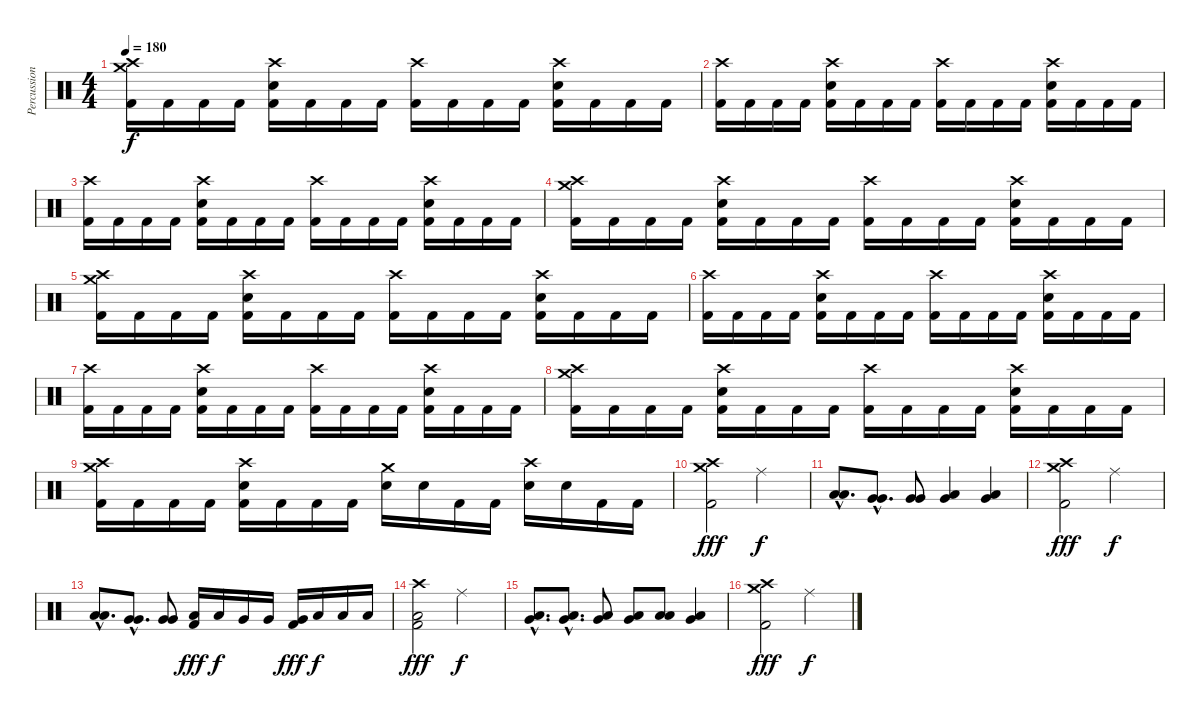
\track ("Percussion (Francisco Izquierdo)" "Percussion") {instrument percussion}
\staff {score}
\articulation defaults
\ts (4 4)
\tempo 180
\clef neutral
\ks c
("Crash high (hit)" "Crash medium (hit)" "Kick (hit) 2").16{dy f} "Kick (hit) 2".16 "Kick (hit) 2".16 "Kick (hit) 2".16 ("Crash high (hit)" "Electric Snare (hit)" "Kick (hit) 2").16 "Kick (hit) 2".16 "Kick (hit) 2".16 "Kick (hit) 2".16 ("Crash high (hit)" "Kick (hit) 2").16 "Kick (hit) 2".16 "Kick (hit) 2".16 "Kick (hit) 2".16 ("Crash high (hit)" "Electric Snare (hit)" "Kick (hit) 2").16 "Kick (hit) 2".16 "Kick (hit) 2".16 "Kick (hit) 2".16 |
("Crash high (hit)" "Kick (hit) 2").16 "Kick (hit) 2".16 "Kick (hit) 2".16 "Kick (hit) 2".16 ("Crash high (hit)" "Electric Snare (hit)" "Kick (hit) 2").16 "Kick (hit) 2".16 "Kick (hit) 2".16 "Kick (hit) 2".16 ("Crash high (hit)" "Kick (hit) 2").16 "Kick (hit) 2".16 "Kick (hit) 2".16 "Kick (hit) 2".16 ("Crash high (hit)" "Electric Snare (hit)" "Kick (hit) 2").16 "Kick (hit) 2".16 "Kick (hit) 2".16 "Kick (hit) 2".16 |
("Crash high (hit)" "Kick (hit) 2").16 "Kick (hit) 2".16 "Kick (hit) 2".16 "Kick (hit) 2".16 ("Crash high (hit)" "Electric Snare (hit)" "Kick (hit) 2").16 "Kick (hit) 2".16 "Kick (hit) 2".16 "Kick (hit) 2".16 ("Crash high (hit)" "Kick (hit) 2").16 "Kick (hit) 2".16 "Kick (hit) 2".16 "Kick (hit) 2".16 ("Crash high (hit)" "Electric Snare (hit)" "Kick (hit) 2").16 "Kick (hit) 2".16 "Kick (hit) 2".16 "Kick (hit) 2".16 |
("Crash high (hit)" "Crash medium (hit)" "Kick (hit) 2").16 "Kick (hit) 2".16 "Kick (hit) 2".16 "Kick (hit) 2".16 ("Crash high (hit)" "Electric Snare (hit)" "Kick (hit) 2").16 "Kick (hit) 2".16 "Kick (hit) 2".16 "Kick (hit) 2".16 ("Crash high (hit)" "Kick (hit) 2").16 "Kick (hit) 2".16 "Kick (hit) 2".16 "Kick (hit) 2".16 ("Crash high (hit)" "Electric Snare (hit)" "Kick (hit) 2").16 "Kick (hit) 2".16 "Kick (hit) 2".16 "Kick (hit) 2".16 |
("Crash high (hit)" "Crash medium (hit)" "Kick (hit) 2").16 "Kick (hit) 2".16 "Kick (hit) 2".16 "Kick (hit) 2".16 ("Crash high (hit)" "Electric Snare (hit)" "Kick (hit) 2").16 "Kick (hit) 2".16 "Kick (hit) 2".16 "Kick (hit) 2".16 ("Crash high (hit)" "Kick (hit) 2").16 "Kick (hit) 2".16 "Kick (hit) 2".16 "Kick (hit) 2".16 ("Crash high (hit)" "Electric Snare (hit)" "Kick (hit) 2").16 "Kick (hit) 2".16 "Kick (hit) 2".16 "Kick (hit) 2".16 |
("Crash high (hit)" "Kick (hit) 2").16 "Kick (hit) 2".16 "Kick (hit) 2".16 "Kick (hit) 2".16 ("Crash high (hit)" "Electric Snare (hit)" "Kick (hit) 2").16 "Kick (hit) 2".16 "Kick (hit) 2".16 "Kick (hit) 2".16 ("Crash high (hit)" "Kick (hit) 2").16 "Kick (hit) 2".16 "Kick (hit) 2".16 "Kick (hit) 2".16 ("Crash high (hit)" "Electric Snare (hit)" "Kick (hit) 2").16 "Kick (hit) 2".16 "Kick (hit) 2".16 "Kick (hit) 2".16 |
("Crash high (hit)" "Kick (hit) 2").16 "Kick (hit) 2".16 "Kick (hit) 2".16 "Kick (hit) 2".16 ("Crash high (hit)" "Electric Snare (hit)" "Kick (hit) 2").16 "Kick (hit) 2".16 "Kick (hit) 2".16 "Kick (hit) 2".16 ("Crash high (hit)" "Kick (hit) 2").16 "Kick (hit) 2".16 "Kick (hit) 2".16 "Kick (hit) 2".16 ("Crash high (hit)" "Electric Snare (hit)" "Kick (hit) 2").16 "Kick (hit) 2".16 "Kick (hit) 2".16 "Kick (hit) 2".16 |
("Crash high (hit)" "Crash medium (hit)" "Kick (hit) 2").16 "Kick (hit) 2".16 "Kick (hit) 2".16 "Kick (hit) 2".16 ("Crash high (hit)" "Electric Snare (hit)" "Kick (hit) 2").16 "Kick (hit) 2".16 "Kick (hit) 2".16 "Kick (hit) 2".16 ("Crash high (hit)" "Kick (hit) 2").16 "Kick (hit) 2".16 "Kick (hit) 2".16 "Kick (hit) 2".16 ("Crash high (hit)" "Electric Snare (hit)" "Kick (hit) 2").16 "Kick (hit) 2".16 "Kick (hit) 2".16 "Kick (hit) 2".16 |
("Crash high (hit)" "Crash medium (hit)" "Kick (hit) 2").16 "Kick (hit) 2".16 "Kick (hit) 2".16 "Kick (hit) 2".16 ("Crash high (hit)" "Electric Snare (hit)" "Kick (hit) 2").16 "Kick (hit) 2".16 "Kick (hit) 2".16 "Kick (hit) 2".16 ("Crash medium (hit)" "Electric Snare (hit)").16 "Electric Snare (hit)".16 "Kick (hit) 2".16 "Kick (hit) 2".16 ("Crash high (hit)" "Electric Snare (hit)").16 "Electric Snare (hit)".16 "Kick (hit) 2".16 "Kick (hit) 2".16 |
("Crash high (hit)" "Crash medium (hit)" "Kick (hit) 2").2{dy fff} "Ride (middle)".2{dy f} |
("Low Tom (hit)"{hac} "Low Tom (hit)"{hac}).8{d} ("Very Low Tom (hit)"{hac} "Very Low Tom (hit)"{hac}).8{d} ("Very Low Tom (hit)" "Very Low Tom (hit)").8 ("Low Tom (hit)" "Very Low Tom (hit)").4 ("Very Low Tom (hit)" "Low Floor Tom (hit)").4 |
("Crash high (hit)" "Crash medium (hit)" "Kick (hit) 2").2{dy fff} "Ride (middle)".2{dy f} |
("Low Tom (hit)"{hac} "Low Tom (hit)"{hac}).8{d} ("Very Low Tom (hit)"{hac} "Very Low Tom (hit)"{hac}).8{d} ("Very Low Tom (hit)" "Very Low Tom (hit)").8 ("Low Tom (hit)" "Kick (hit) 2").16{dy fff} "Low Tom (hit)".16{dy f} "Very Low Tom (hit)".16 "Very Low Tom (hit)".16 ("Very Low Tom (hit)" "Kick (hit) 2").16{dy fff} "Low Floor Tom (hit)".16{dy f} "Low Floor Tom (hit)".16 "Low Floor Tom (hit)".16 |
("Crash high (hit)" "Low Tom (hit)" "Kick (hit) 2").2{dy fff} "Ride (middle)".2{dy f} |
("Very Low Tom (hit)"{hac} "Low Tom (hit)"{hac}).8{d} ("Low Floor Tom (hit)"{hac} "Very Low Tom (hit)"{hac}).8{d} ("Low Floor Tom (hit)" "Very Low Tom (hit)").8 ("Low Tom (hit)" "Very Low Tom (hit)").8 ("Low Tom (hit)" "Low Floor Tom (hit)").8 ("Very Low Tom (hit)" "Low Floor Tom (hit)").4 |
("Crash high (hit)" "Crash medium (hit)" "Kick (hit) 2").2{dy fff} "Ride (middle)".2{dy f}
